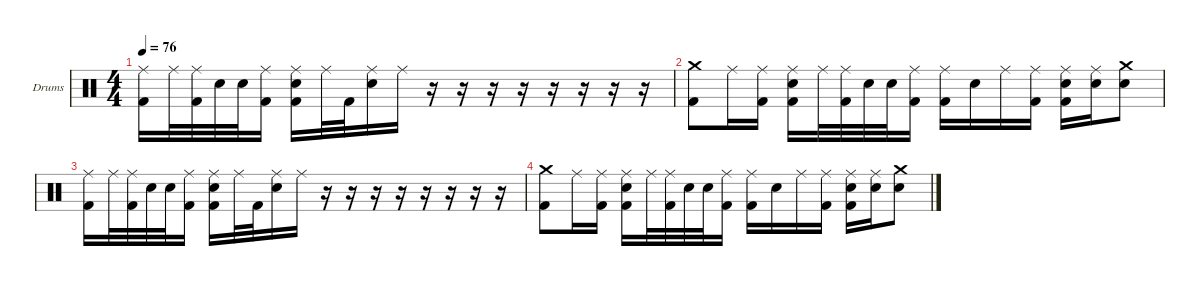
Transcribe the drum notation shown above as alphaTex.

\hideDynamics
\bracketExtendMode nobrackets
\firstSystemTrackNameOrientation horizontal
\otherSystemsTrackNameOrientation horizontal
\track ("Drumkit" "Drums") {instrument percussion}
\staff {score}
\articulation defaults
\ts (4 4)
\tempo 76
\clef neutral
\ks c
("Kick (hit) 2" "Ride (middle)").16{dy f beam Down} "Ride (middle)".32{beam Down} ("Kick (hit) 2" "Ride (middle)").32{beam Down} "Snare (hit) 2".32{beam Down} "Snare (hit) 2".32{beam Down} ("Kick (hit) 2" "Ride (middle)").16{beam Down} ("Ride (middle)" "Kick (hit) 2" "Snare (hit) 2").16{beam Down} "Ride (middle)".32{beam Down} "Kick (hit) 2".32{beam Down} ("Ride (middle)" "Snare (hit) 2").16{beam Down} "Ride (middle)".16{beam Down} r.16{beam Down} r.16{beam Down} r.16{beam Down} r.16{beam Down} r.16{beam Down} r.16{beam Down} r.16{beam Down} r.16{beam Down} |
("Kick (hit) 2" "Crash medium (hit)").8{beam Down} "Ride (middle)".16{beam Down} ("Kick (hit) 2" "Ride (middle)").16{beam Down} ("Snare (hit) 2" "Kick (hit) 2" "Ride (middle)").16{beam Down} "Ride (middle)".32{beam Down} ("Kick (hit) 2" "Ride (middle)").32{beam Down} "Snare (hit) 2".32{beam Down} "Snare (hit) 2".32{beam Down} ("Kick (hit) 2" "Ride (middle)").16{beam Down} ("Kick (hit) 2" "Ride (middle)").16{beam Down} "Snare (hit) 2".16{beam Down} "Ride (middle)".16{beam Down} ("Kick (hit) 2" "Ride (middle)").16{beam Down} ("Kick (hit) 2" "Snare (hit) 2" "Ride (middle)").16{beam Down} ("Snare (hit) 2" "Ride (middle)").16{beam Down} ("Snare (hit) 2" "Crash medium (hit)").8{beam Down} |
("Ride (middle)" "Kick (hit) 2").16{beam Down} "Ride (middle)".32{beam Down} ("Kick (hit) 2" "Ride (middle)").32{beam Down} "Snare (hit) 2".32{beam Down} "Snare (hit) 2".32{beam Down} ("Kick (hit) 2" "Ride (middle)").16{beam Down} ("Ride (middle)" "Kick (hit) 2" "Snare (hit) 2").16{beam Down} "Ride (middle)".32{beam Down} "Kick (hit) 2".32{beam Down} ("Ride (middle)" "Snare (hit) 2").16{beam Down} "Ride (middle)".16{beam Down} r.16{beam Down} r.16{beam Down} r.16{beam Down} r.16{beam Down} r.16{beam Down} r.16{beam Down} r.16{beam Down} r.16{beam Down} |
("Crash medium (hit)" "Kick (hit) 2").8{beam Down} "Ride (middle)".16{beam Down} ("Kick (hit) 2" "Ride (middle)").16{beam Down} ("Snare (hit) 2" "Kick (hit) 2" "Ride (middle)").16{beam Down} "Ride (middle)".32{beam Down} ("Kick (hit) 2" "Ride (middle)").32{beam Down} "Snare (hit) 2".32{beam Down} "Snare (hit) 2".32{beam Down} ("Kick (hit) 2" "Ride (middle)").16{beam Down} ("Kick (hit) 2" "Ride (middle)").16{beam Down} "Snare (hit) 2".16{beam Down} "Ride (middle)".16{beam Down} ("Kick (hit) 2" "Ride (middle)").16{beam Down} ("Kick (hit) 2" "Snare (hit) 2" "Ride (middle)").16{beam Down} ("Snare (hit) 2" "Ride (middle)").16{beam Down} ("Snare (hit) 2" "Crash medium (hit)").8{beam Down}
